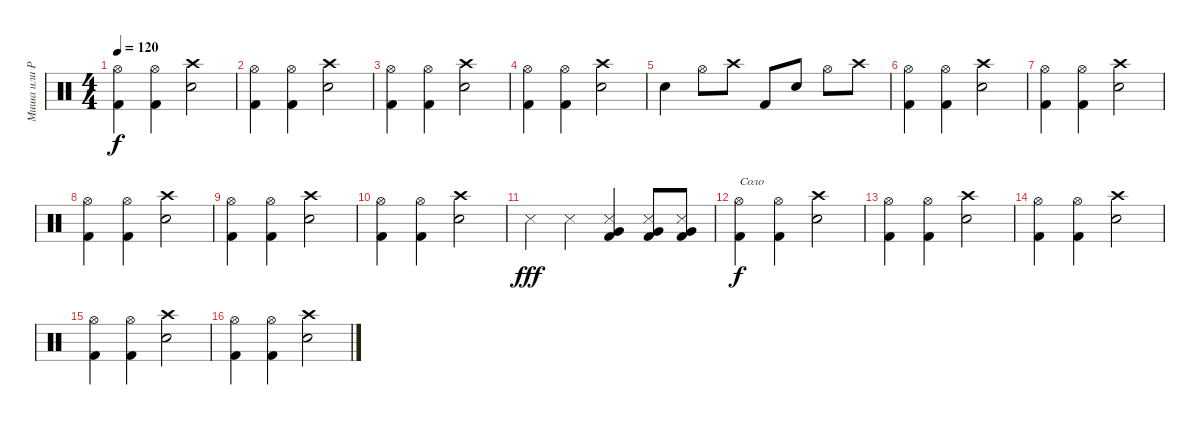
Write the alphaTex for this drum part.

\track ("Миша или Рома" "Миша или Р") {instrument percussion}
\staff {score}
\articulation defaults
\ts (4 4)
\tempo 120
\clef neutral
\ks c
("Hi-Hat (open)" "Kick (hit) 2").4{dy f} ("Hi-Hat (open)" "Kick (hit) 2").4 ("Crash high (hit)" "Snare (hit) 2").2 |
("Hi-Hat (open)" "Kick (hit) 2").4 ("Hi-Hat (open)" "Kick (hit) 2").4 ("Crash high (hit)" "Snare (hit) 2").2 |
("Hi-Hat (open)" "Kick (hit) 2").4 ("Hi-Hat (open)" "Kick (hit) 2").4 ("Crash high (hit)" "Snare (hit) 2").2 |
("Hi-Hat (open)" "Kick (hit) 2").4 ("Hi-Hat (open)" "Kick (hit) 2").4 ("Crash high (hit)" "Snare (hit) 2").2 |
"Snare (hit) 2".4 "Hi-Hat (open)".8 "Crash high (hit)".8 "Kick (hit) 2".8 "Snare (hit) 2".8 "Hi-Hat (open)".8 "Crash high (hit)".8 |
("Hi-Hat (open)" "Kick (hit) 2").4 ("Hi-Hat (open)" "Kick (hit) 2").4 ("Crash high (hit)" "Snare (hit) 2").2 |
("Hi-Hat (open)" "Kick (hit) 2").4 ("Hi-Hat (open)" "Kick (hit) 2").4 ("Crash high (hit)" "Snare (hit) 2").2 |
("Hi-Hat (open)" "Kick (hit) 2").4 ("Hi-Hat (open)" "Kick (hit) 2").4 ("Crash high (hit)" "Snare (hit) 2").2 |
("Hi-Hat (open)" "Kick (hit) 2").4 ("Hi-Hat (open)" "Kick (hit) 2").4 ("Crash high (hit)" "Snare (hit) 2").2 |
("Hi-Hat (open)" "Kick (hit) 2").4 ("Hi-Hat (open)" "Kick (hit) 2").4 ("Crash high (hit)" "Snare (hit) 2").2 |
"Metronome (hit)".4{dy fff} "Metronome (hit)".4 ("Metronome (hit)" "Very Low Tom (hit)" "Kick (hit) 2").4 ("Metronome (hit)" "Very Low Tom (hit)" "Kick (hit) 2").8 ("Metronome (hit)" "Very Low Tom (hit)" "Kick (hit) 2").8 |
("Hi-Hat (open)" "Kick (hit) 2").4{txt "Соло" dy f} ("Hi-Hat (open)" "Kick (hit) 2").4 ("Crash high (hit)" "Snare (hit) 2").2 |
("Hi-Hat (open)" "Kick (hit) 2").4 ("Hi-Hat (open)" "Kick (hit) 2").4 ("Crash high (hit)" "Snare (hit) 2").2 |
("Hi-Hat (open)" "Kick (hit) 2").4 ("Hi-Hat (open)" "Kick (hit) 2").4 ("Crash high (hit)" "Snare (hit) 2").2 |
("Hi-Hat (open)" "Kick (hit) 2").4 ("Hi-Hat (open)" "Kick (hit) 2").4 ("Crash high (hit)" "Snare (hit) 2").2 |
("Hi-Hat (open)" "Kick (hit) 2").4 ("Hi-Hat (open)" "Kick (hit) 2").4 ("Crash high (hit)" "Snare (hit) 2").2
